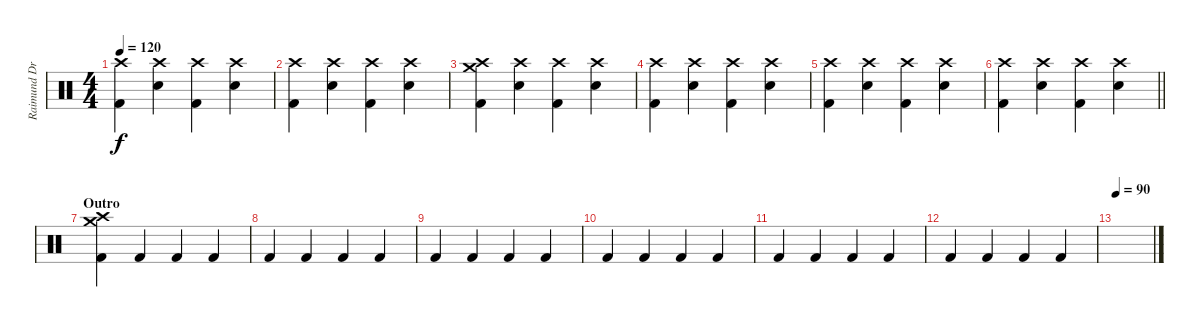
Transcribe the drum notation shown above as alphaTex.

\track ("Raimund Drums" "Raimund Dr") {instrument percussion}
\staff {score}
\articulation defaults
\ts (4 4)
\tempo 120
\clef neutral
\ks c
("Crash high (hit)" "Kick (hit) 2").4{dy f} ("Crash high (hit)" "Electric Snare (hit)").4 ("Crash high (hit)" "Kick (hit) 2").4 ("Crash high (hit)" "Electric Snare (hit)").4 |
("Crash high (hit)" "Kick (hit) 2").4 ("Crash high (hit)" "Electric Snare (hit)").4 ("Crash high (hit)" "Kick (hit) 2").4 ("Crash high (hit)" "Electric Snare (hit)").4 |
("Crash high (hit)" "Crash medium (hit)" "Kick (hit) 2").4 ("Crash high (hit)" "Electric Snare (hit)").4 ("Crash high (hit)" "Kick (hit) 2").4 ("Crash high (hit)" "Electric Snare (hit)").4 |
("Crash high (hit)" "Kick (hit) 2").4 ("Crash high (hit)" "Electric Snare (hit)").4 ("Crash high (hit)" "Kick (hit) 2").4 ("Crash high (hit)" "Electric Snare (hit)").4 |
("Crash high (hit)" "Kick (hit) 2").4 ("Crash high (hit)" "Electric Snare (hit)").4 ("Crash high (hit)" "Kick (hit) 2").4 ("Crash high (hit)" "Electric Snare (hit)").4 |
\barLineRight lightlight
("Crash high (hit)" "Kick (hit) 2").4 ("Crash high (hit)" "Electric Snare (hit)").4 ("Crash high (hit)" "Kick (hit) 2").4 ("Crash high (hit)" "Electric Snare (hit)").4 |
\section ("" "Outro")
("Crash high (hit)" "Crash medium (hit)" "Kick (hit) 2").4 "Kick (hit) 2".4 "Kick (hit) 2".4 "Kick (hit) 2".4 |
"Kick (hit) 2".4 "Kick (hit) 2".4 "Kick (hit) 2".4 "Kick (hit) 2".4 |
"Kick (hit) 2".4 "Kick (hit) 2".4 "Kick (hit) 2".4 "Kick (hit) 2".4 |
"Kick (hit) 2".4 "Kick (hit) 2".4 "Kick (hit) 2".4 "Kick (hit) 2".4 |
"Kick (hit) 2".4 "Kick (hit) 2".4 "Kick (hit) 2".4 "Kick (hit) 2".4 |
"Kick (hit) 2".4 "Kick (hit) 2".4 "Kick (hit) 2".4 "Kick (hit) 2".4 |
\tempo 90
